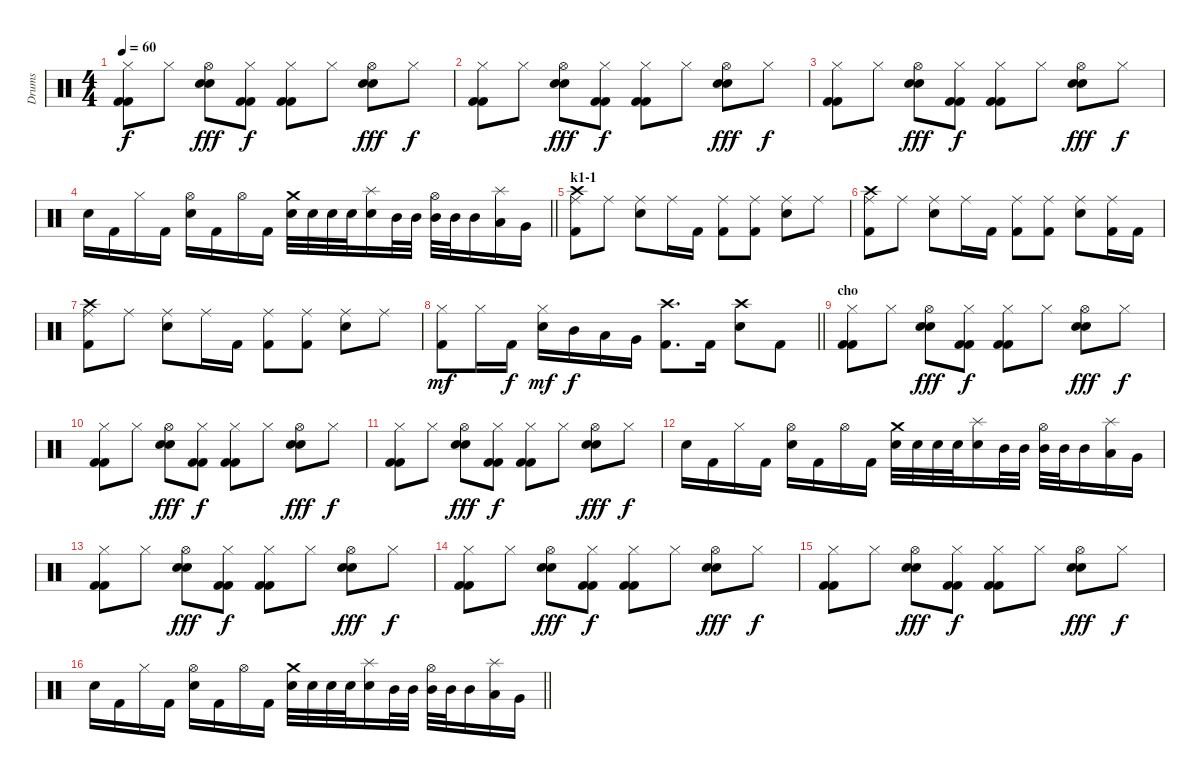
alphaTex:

\track ("Drums" "Drums") {instrument percussion}
\staff {score}
\articulation defaults
\ts (4 4)
\tempo 60
\clef neutral
\ks c
("Hi-Hat (closed)" "Kick (hit) 2" "Kick (hit) 2").8{dy f} "Hi-Hat (closed)".8 ("Hi-Hat (open)" "Electric Snare (hit)" "Electric Snare (hit)").8{dy fff} ("Hi-Hat (closed)" "Kick (hit) 2" "Kick (hit) 2").8{dy f} ("Hi-Hat (closed)" "Kick (hit) 2" "Kick (hit) 2").8 "Hi-Hat (closed)".8 ("Hi-Hat (open)" "Electric Snare (hit)" "Electric Snare (hit)").8{dy fff} "Hi-Hat (closed)".8{dy f} |
("Hi-Hat (closed)" "Kick (hit) 2" "Kick (hit) 2").8 "Hi-Hat (closed)".8 ("Hi-Hat (open)" "Electric Snare (hit)" "Electric Snare (hit)").8{dy fff} ("Hi-Hat (closed)" "Kick (hit) 2" "Kick (hit) 2").8{dy f} ("Hi-Hat (closed)" "Kick (hit) 2" "Kick (hit) 2").8 "Hi-Hat (closed)".8 ("Hi-Hat (open)" "Electric Snare (hit)" "Electric Snare (hit)").8{dy fff} "Hi-Hat (closed)".8{dy f} |
("Hi-Hat (closed)" "Kick (hit) 2" "Kick (hit) 2").8 "Hi-Hat (closed)".8 ("Hi-Hat (open)" "Electric Snare (hit)" "Electric Snare (hit)").8{dy fff} ("Hi-Hat (closed)" "Kick (hit) 2" "Kick (hit) 2").8{dy f} ("Hi-Hat (closed)" "Kick (hit) 2" "Kick (hit) 2").8 "Hi-Hat (closed)".8 ("Hi-Hat (open)" "Electric Snare (hit)" "Electric Snare (hit)").8{dy fff} "Hi-Hat (closed)".8{dy f} |
\barLineRight lightlight "Snare (hit) 2".16 "Kick (hit) 2".16 "Hi-Hat (closed)".16 "Kick (hit) 2".16
("Hi-Hat (open)" "Snare (hit) 2").16 "Kick (hit) 2".16 "Hi-Hat (open)".16 "Kick (hit) 2".16 ("Crash medium (hit)" "Snare (hit) 2").32 "Snare (hit) 2".32 "Snare (hit) 2".32 "Snare (hit) 2".32 ("Splash (hit)" "Snare (hit) 2").16 "Mid Tom (hit)".32 "Mid Tom (hit)".32 ("Hi-Hat (open)" "Mid Tom (hit)").32 "Mid Tom (hit)".32 "Mid Tom (hit)".16 ("Splash (hit)" "Low Tom (hit)").16 "Very Low Tom (hit)".16 |
\section ("" "k1-1")
("Kick (hit) 2" "Crash high (hit)" "Ride (middle)").8 "Ride (middle)".8 ("Electric Snare (hit)" "Ride (middle)").8 "Ride (middle)".16 "Kick (hit) 2".16 ("Kick (hit) 2" "Ride (middle)").8 ("Kick (hit) 2" "Ride (middle)").8 ("Electric Snare (hit)" "Ride (middle)").8 "Ride (middle)".8 |
("Kick (hit) 2" "Crash high (hit)" "Ride (middle)").8 "Ride (middle)".8 ("Electric Snare (hit)" "Ride (middle)").8 "Ride (middle)".16 "Kick (hit) 2".16 ("Kick (hit) 2" "Ride (middle)").8 ("Kick (hit) 2" "Ride (middle)").8 ("Electric Snare (hit)" "Ride (middle)").8 ("Kick (hit) 2" "Ride (middle)").16 "Kick (hit) 2".16 |
("Kick (hit) 2" "Crash high (hit)" "Ride (middle)").8 "Ride (middle)".8 ("Electric Snare (hit)" "Ride (middle)").8 "Ride (middle)".16 "Kick (hit) 2".16 ("Kick (hit) 2" "Ride (middle)").8 ("Kick (hit) 2" "Ride (middle)").8 ("Electric Snare (hit)" "Ride (middle)").8 "Ride (middle)".8 |
\barLineRight lightlight
("Hi-Hat (closed)" "Kick (hit) 2").8{dy mf} "Hi-Hat (closed)".16 "Kick (hit) 2".16{dy f} ("Hi-Hat (closed)" "Snare (hit) 2").16{dy mf} "Mid Tom (hit)".16{dy f} "Low Tom (hit)".16 "Very Low Tom (hit)".16 ("Crash high (hit)" "Kick (hit) 2").8{d} "Kick (hit) 2".16 ("Crash high (hit)" "Snare (hit) 2").8 "Kick (hit) 2".8 |
\section ("" "cho")
("Hi-Hat (closed)" "Kick (hit) 2" "Kick (hit) 2").8 "Hi-Hat (closed)".8 ("Hi-Hat (open)" "Electric Snare (hit)" "Electric Snare (hit)").8{dy fff} ("Hi-Hat (closed)" "Kick (hit) 2" "Kick (hit) 2").8{dy f} ("Hi-Hat (closed)" "Kick (hit) 2" "Kick (hit) 2").8 "Hi-Hat (closed)".8 ("Hi-Hat (open)" "Electric Snare (hit)" "Electric Snare (hit)").8{dy fff} "Hi-Hat (closed)".8{dy f} |
("Hi-Hat (closed)" "Kick (hit) 2" "Kick (hit) 2").8 "Hi-Hat (closed)".8 ("Hi-Hat (open)" "Electric Snare (hit)" "Electric Snare (hit)").8{dy fff} ("Hi-Hat (closed)" "Kick (hit) 2" "Kick (hit) 2").8{dy f} ("Hi-Hat (closed)" "Kick (hit) 2" "Kick (hit) 2").8 "Hi-Hat (closed)".8 ("Hi-Hat (open)" "Electric Snare (hit)" "Electric Snare (hit)").8{dy fff} "Hi-Hat (closed)".8{dy f} |
("Hi-Hat (closed)" "Kick (hit) 2" "Kick (hit) 2").8 "Hi-Hat (closed)".8 ("Hi-Hat (open)" "Electric Snare (hit)" "Electric Snare (hit)").8{dy fff} ("Hi-Hat (closed)" "Kick (hit) 2" "Kick (hit) 2").8{dy f} ("Hi-Hat (closed)" "Kick (hit) 2" "Kick (hit) 2").8 "Hi-Hat (closed)".8 ("Hi-Hat (open)" "Electric Snare (hit)" "Electric Snare (hit)").8{dy fff} "Hi-Hat (closed)".8{dy f} |
"Snare (hit) 2".16 "Kick (hit) 2".16 "Hi-Hat (closed)".16 "Kick (hit) 2".16 ("Hi-Hat (open)" "Snare (hit) 2").16 "Kick (hit) 2".16 "Hi-Hat (open)".16 "Kick (hit) 2".16 ("Crash medium (hit)" "Snare (hit) 2").32 "Snare (hit) 2".32 "Snare (hit) 2".32 "Snare (hit) 2".32 ("Splash (hit)" "Snare (hit) 2").16 "Mid Tom (hit)".32 "Mid Tom (hit)".32 ("Hi-Hat (open)" "Mid Tom (hit)").32 "Mid Tom (hit)".32 "Mid Tom (hit)".16 ("Splash (hit)" "Low Tom (hit)").16 "Very Low Tom (hit)".16 |
("Hi-Hat (closed)" "Kick (hit) 2" "Kick (hit) 2").8 "Hi-Hat (closed)".8 ("Hi-Hat (open)" "Electric Snare (hit)" "Electric Snare (hit)").8{dy fff} ("Hi-Hat (closed)" "Kick (hit) 2" "Kick (hit) 2").8{dy f} ("Hi-Hat (closed)" "Kick (hit) 2" "Kick (hit) 2").8 "Hi-Hat (closed)".8 ("Hi-Hat (open)" "Electric Snare (hit)" "Electric Snare (hit)").8{dy fff} "Hi-Hat (closed)".8{dy f} |
("Hi-Hat (closed)" "Kick (hit) 2" "Kick (hit) 2").8 "Hi-Hat (closed)".8 ("Hi-Hat (open)" "Electric Snare (hit)" "Electric Snare (hit)").8{dy fff} ("Hi-Hat (closed)" "Kick (hit) 2" "Kick (hit) 2").8{dy f} ("Hi-Hat (closed)" "Kick (hit) 2" "Kick (hit) 2").8 "Hi-Hat (closed)".8 ("Hi-Hat (open)" "Electric Snare (hit)" "Electric Snare (hit)").8{dy fff} "Hi-Hat (closed)".8{dy f} |
("Hi-Hat (closed)" "Kick (hit) 2" "Kick (hit) 2").8 "Hi-Hat (closed)".8 ("Hi-Hat (open)" "Electric Snare (hit)" "Electric Snare (hit)").8{dy fff} ("Hi-Hat (closed)" "Kick (hit) 2" "Kick (hit) 2").8{dy f} ("Hi-Hat (closed)" "Kick (hit) 2" "Kick (hit) 2").8 "Hi-Hat (closed)".8 ("Hi-Hat (open)" "Electric Snare (hit)" "Electric Snare (hit)").8{dy fff} "Hi-Hat (closed)".8{dy f} |
\barLineRight lightlight "Snare (hit) 2".16 "Kick (hit) 2".16 "Hi-Hat (closed)".16 "Kick (hit) 2".16
("Hi-Hat (open)" "Snare (hit) 2").16 "Kick (hit) 2".16 "Hi-Hat (open)".16 "Kick (hit) 2".16 ("Crash medium (hit)" "Snare (hit) 2").32 "Snare (hit) 2".32 "Snare (hit) 2".32 "Snare (hit) 2".32 ("Splash (hit)" "Snare (hit) 2").16 "Mid Tom (hit)".32 "Mid Tom (hit)".32 ("Hi-Hat (open)" "Mid Tom (hit)").32 "Mid Tom (hit)".32 "Mid Tom (hit)".16 ("Splash (hit)" "Low Tom (hit)").16 "Very Low Tom (hit)".16
